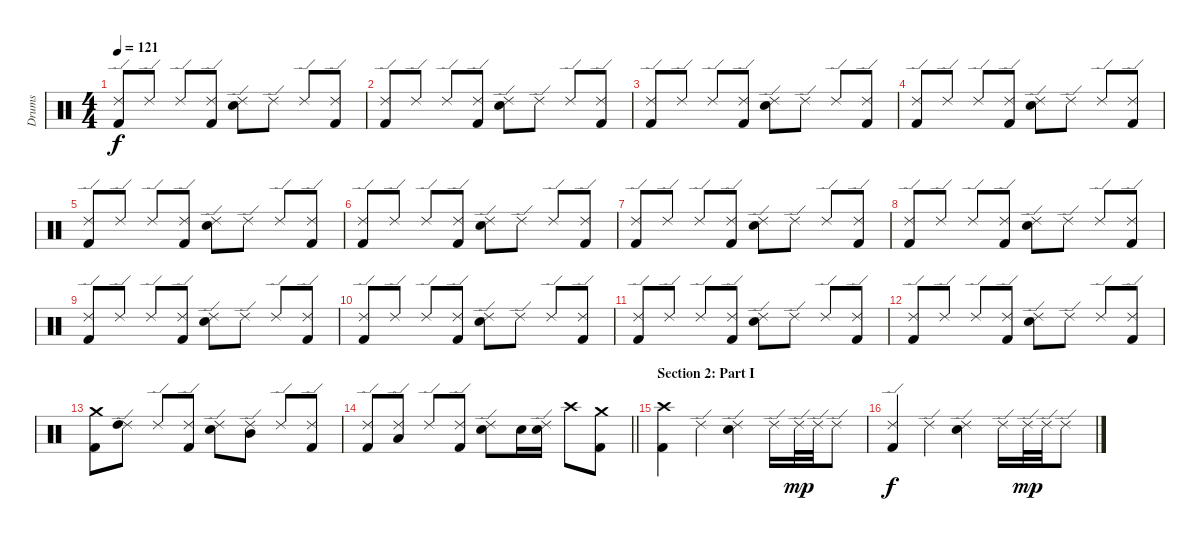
\track ("Drums" "Drums") {instrument percussion}
\staff {score}
\articulation defaults
\ts (4 4)
\tempo 121
\clef neutral
\ks c
("Ride (edge) 2" "Kick (hit) 2").8{dy f} "Ride (edge) 2".8 "Ride (edge) 2".8 ("Ride (edge) 2" "Kick (hit) 2").8 ("Ride (edge) 2" "Electric Snare (hit)").8 "Ride (edge) 2".8 "Ride (edge) 2".8 ("Ride (edge) 2" "Kick (hit) 2").8 |
("Ride (edge) 2" "Kick (hit) 2").8 "Ride (edge) 2".8 "Ride (edge) 2".8 ("Ride (edge) 2" "Kick (hit) 2").8 ("Ride (edge) 2" "Electric Snare (hit)").8 "Ride (edge) 2".8 "Ride (edge) 2".8 ("Ride (edge) 2" "Kick (hit) 2").8 |
("Ride (edge) 2" "Kick (hit) 2").8 "Ride (edge) 2".8 "Ride (edge) 2".8 ("Ride (edge) 2" "Kick (hit) 2").8 ("Ride (edge) 2" "Electric Snare (hit)").8 "Ride (edge) 2".8 "Ride (edge) 2".8 ("Ride (edge) 2" "Kick (hit) 2").8 |
("Ride (edge) 2" "Kick (hit) 2").8 "Ride (edge) 2".8 "Ride (edge) 2".8 ("Ride (edge) 2" "Kick (hit) 2").8 ("Ride (edge) 2" "Electric Snare (hit)").8 "Ride (edge) 2".8 "Ride (edge) 2".8 ("Ride (edge) 2" "Kick (hit) 2").8 |
("Ride (edge) 2" "Kick (hit) 2").8 "Ride (edge) 2".8 "Ride (edge) 2".8 ("Ride (edge) 2" "Kick (hit) 2").8 ("Ride (edge) 2" "Electric Snare (hit)").8 "Ride (edge) 2".8 "Ride (edge) 2".8 ("Ride (edge) 2" "Kick (hit) 2").8 |
("Ride (edge) 2" "Kick (hit) 2").8 "Ride (edge) 2".8 "Ride (edge) 2".8 ("Ride (edge) 2" "Kick (hit) 2").8 ("Ride (edge) 2" "Electric Snare (hit)").8 "Ride (edge) 2".8 "Ride (edge) 2".8 ("Ride (edge) 2" "Kick (hit) 2").8 |
("Ride (edge) 2" "Kick (hit) 2").8 "Ride (edge) 2".8 "Ride (edge) 2".8 ("Ride (edge) 2" "Kick (hit) 2").8 ("Ride (edge) 2" "Electric Snare (hit)").8 "Ride (edge) 2".8 "Ride (edge) 2".8 ("Ride (edge) 2" "Kick (hit) 2").8 |
("Ride (edge) 2" "Kick (hit) 2").8 "Ride (edge) 2".8 "Ride (edge) 2".8 ("Ride (edge) 2" "Kick (hit) 2").8 ("Ride (edge) 2" "Electric Snare (hit)").8 "Ride (edge) 2".8 "Ride (edge) 2".8 ("Ride (edge) 2" "Kick (hit) 2").8 |
("Ride (edge) 2" "Kick (hit) 2").8 "Ride (edge) 2".8 "Ride (edge) 2".8 ("Ride (edge) 2" "Kick (hit) 2").8 ("Ride (edge) 2" "Electric Snare (hit)").8 "Ride (edge) 2".8 "Ride (edge) 2".8 ("Ride (edge) 2" "Kick (hit) 2").8 |
("Ride (edge) 2" "Kick (hit) 2").8 "Ride (edge) 2".8 "Ride (edge) 2".8 ("Ride (edge) 2" "Kick (hit) 2").8 ("Ride (edge) 2" "Electric Snare (hit)").8 "Ride (edge) 2".8 "Ride (edge) 2".8 ("Ride (edge) 2" "Kick (hit) 2").8 |
("Ride (edge) 2" "Kick (hit) 2").8 "Ride (edge) 2".8 "Ride (edge) 2".8 ("Ride (edge) 2" "Kick (hit) 2").8 ("Ride (edge) 2" "Electric Snare (hit)").8 "Ride (edge) 2".8 "Ride (edge) 2".8 ("Ride (edge) 2" "Kick (hit) 2").8 |
("Ride (edge) 2" "Kick (hit) 2").8 "Ride (edge) 2".8 "Ride (edge) 2".8 ("Ride (edge) 2" "Kick (hit) 2").8 ("Ride (edge) 2" "Electric Snare (hit)").8 "Ride (edge) 2".8 "Ride (edge) 2".8 ("Ride (edge) 2" "Kick (hit) 2").8 |
("Crash medium (hit)" "Kick (hit) 2").8 ("Ride (edge) 2" "High Tom (hit)").8 "Ride (edge) 2".8 ("Ride (edge) 2" "Kick (hit) 2").8 ("Ride (edge) 2" "Electric Snare (hit)").8 ("Ride (edge) 2" "Mid Tom (hit)").8 "Ride (edge) 2".8 ("Ride (edge) 2" "Kick (hit) 2").8 |
\barLineRight lightlight
("Ride (edge) 2" "Kick (hit) 2").8 ("Ride (edge) 2" "Low Tom (hit)").8 "Ride (edge) 2".8 ("Ride (edge) 2" "Kick (hit) 2").8 ("Ride (edge) 2" "Electric Snare (hit)").8 "Electric Snare (hit)".16 ("Ride (edge) 2" "Electric Snare (hit)").16 "Crash high (hit)".8 ("Crash medium (hit)" "Kick (hit) 2").8 |
\section ("" "Section 2: Part I")
("Crash high (hit)" "Kick (hit) 2").4 "Ride (edge) 2".4 ("Ride (edge) 2" "Electric Snare (hit)").4 "Ride (edge) 2".16 "Ride (edge) 2".32{dy mp} "Ride (edge) 2".32 "Ride (edge) 2".8 |
("Ride (edge) 2" "Kick (hit) 2").4{dy f} "Ride (edge) 2".4 ("Ride (edge) 2" "Electric Snare (hit)").4 "Ride (edge) 2".16 "Ride (edge) 2".32{dy mp} "Ride (edge) 2".32 "Ride (edge) 2".8
